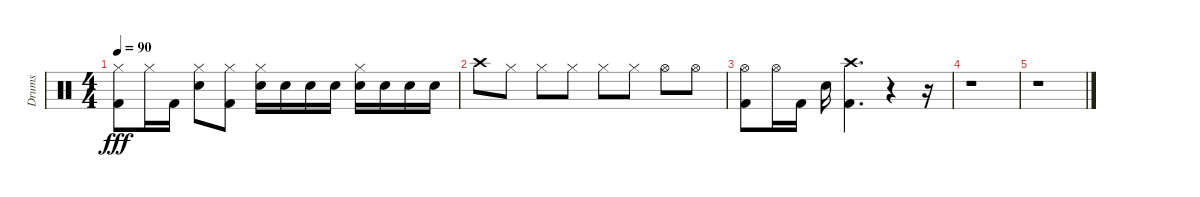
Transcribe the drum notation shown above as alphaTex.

\track ("Drums" "Drums") {instrument percussion}
\staff {score}
\articulation defaults
\ts (4 4)
\tempo 90
\clef neutral
\ks c
("Kick (hit) 2" "Hi-Hat (closed)").8{dy fff} "Hi-Hat (closed)".16 "Kick (hit) 2".16 ("Hi-Hat (closed)" "Snare (hit) 2").8 ("Hi-Hat (closed)" "Kick (hit) 2").8 ("Hi-Hat (closed)" "Snare (hit) 2").16 "Electric Snare (hit)".16 "Electric Snare (hit)".16 "Snare (hit) 2".16 ("Hi-Hat (closed)" "Snare (hit) 2").16 "Snare (hit) 2".16 "Snare (hit) 2".16 "Electric Snare (hit)".16 |
"Crash high (hit)".8 "Hi-Hat (closed)".8 "Hi-Hat (closed)".8 "Hi-Hat (closed)".8 "Hi-Hat (closed)".8 "Hi-Hat (closed)".8 "Hi-Hat (open)".8 "Hi-Hat (open)".8 |
("Hi-Hat (open)" "Kick (hit) 2").8 "Hi-Hat (open)".16 "Kick (hit) 2".16 "Electric Snare (hit)".16 ("Crash high (hit)" "Kick (hit) 2").4{d} r.4 r.16 |
r.1 |
r.1
